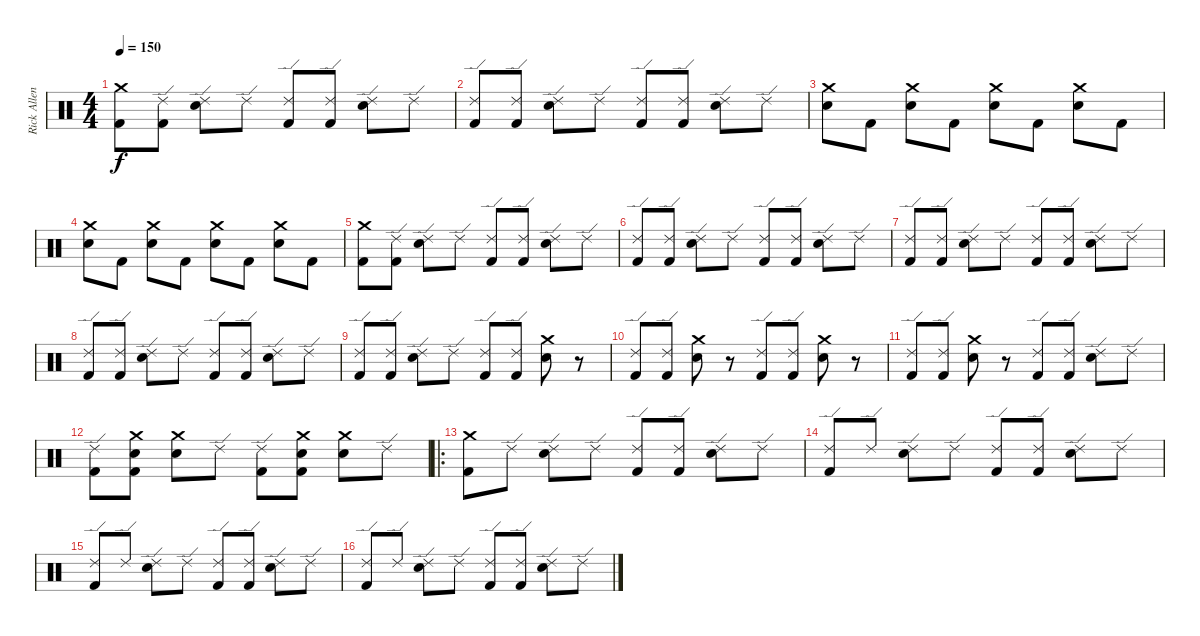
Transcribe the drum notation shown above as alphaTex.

\track ("Rick Allen" "Rick Allen") {instrument percussion}
\staff {score}
\articulation defaults
\ts (4 4)
\tempo 150
\clef neutral
\ks c
("Crash medium (hit)" "Kick (hit) 2").8{dy f} ("Ride (edge) 2" "Kick (hit) 2").8 ("Ride (edge) 2" "Snare (hit) 2").8 "Ride (edge) 2".8 ("Ride (edge) 2" "Kick (hit) 2").8 ("Ride (edge) 2" "Kick (hit) 2").8 ("Ride (edge) 2" "Snare (hit) 2").8 "Ride (edge) 2".8 |
("Ride (edge) 2" "Kick (hit) 2").8 ("Ride (edge) 2" "Kick (hit) 2").8 ("Ride (edge) 2" "Snare (hit) 2").8 "Ride (edge) 2".8 ("Ride (edge) 2" "Kick (hit) 2").8 ("Ride (edge) 2" "Kick (hit) 2").8 ("Ride (edge) 2" "Snare (hit) 2").8 "Ride (edge) 2".8 |
("Crash medium (hit)" "Snare (hit) 2").8 "Kick (hit) 2".8 ("Crash medium (hit)" "Snare (hit) 2").8 "Kick (hit) 2".8 ("Crash medium (hit)" "Snare (hit) 2").8 "Kick (hit) 2".8 ("Crash medium (hit)" "Snare (hit) 2").8 "Kick (hit) 2".8 |
("Crash medium (hit)" "Snare (hit) 2").8 "Kick (hit) 2".8 ("Crash medium (hit)" "Snare (hit) 2").8 "Kick (hit) 2".8 ("Crash medium (hit)" "Snare (hit) 2").8 "Kick (hit) 2".8 ("Crash medium (hit)" "Snare (hit) 2").8 "Kick (hit) 2".8 |
("Crash medium (hit)" "Kick (hit) 2").8 ("Ride (edge) 2" "Kick (hit) 2").8 ("Ride (edge) 2" "Snare (hit) 2").8 "Ride (edge) 2".8 ("Ride (edge) 2" "Kick (hit) 2").8 ("Ride (edge) 2" "Kick (hit) 2").8 ("Ride (edge) 2" "Snare (hit) 2").8 "Ride (edge) 2".8 |
("Ride (edge) 2" "Kick (hit) 2").8 ("Ride (edge) 2" "Kick (hit) 2").8 ("Ride (edge) 2" "Snare (hit) 2").8 "Ride (edge) 2".8 ("Ride (edge) 2" "Kick (hit) 2").8 ("Ride (edge) 2" "Kick (hit) 2").8 ("Ride (edge) 2" "Snare (hit) 2").8 "Ride (edge) 2".8 |
("Ride (edge) 2" "Kick (hit) 2").8 ("Ride (edge) 2" "Kick (hit) 2").8 ("Ride (edge) 2" "Snare (hit) 2").8 "Ride (edge) 2".8 ("Ride (edge) 2" "Kick (hit) 2").8 ("Ride (edge) 2" "Kick (hit) 2").8 ("Ride (edge) 2" "Snare (hit) 2").8 "Ride (edge) 2".8 |
("Ride (edge) 2" "Kick (hit) 2").8 ("Ride (edge) 2" "Kick (hit) 2").8 ("Ride (edge) 2" "Snare (hit) 2").8 "Ride (edge) 2".8 ("Ride (edge) 2" "Kick (hit) 2").8 ("Ride (edge) 2" "Kick (hit) 2").8 ("Ride (edge) 2" "Snare (hit) 2").8 "Ride (edge) 2".8 |
("Ride (edge) 2" "Kick (hit) 2").8 ("Ride (edge) 2" "Kick (hit) 2").8 ("Ride (edge) 2" "Snare (hit) 2").8 "Ride (edge) 2".8 ("Ride (edge) 2" "Kick (hit) 2").8 ("Ride (edge) 2" "Kick (hit) 2").8 ("Crash medium (hit)" "Snare (hit) 2").8 r.8 |
("Ride (edge) 2" "Kick (hit) 2").8 ("Ride (edge) 2" "Kick (hit) 2").8 ("Crash medium (hit)" "Snare (hit) 2").8 r.8 ("Ride (edge) 2" "Kick (hit) 2").8 ("Ride (edge) 2" "Kick (hit) 2").8 ("Crash medium (hit)" "Snare (hit) 2").8 r.8 |
("Ride (edge) 2" "Kick (hit) 2").8 ("Ride (edge) 2" "Kick (hit) 2").8 ("Crash medium (hit)" "Snare (hit) 2").8 r.8 ("Ride (edge) 2" "Kick (hit) 2").8 ("Ride (edge) 2" "Kick (hit) 2").8 ("Ride (edge) 2" "Snare (hit) 2").8 "Ride (edge) 2".8 |
("Ride (edge) 2" "Kick (hit) 2").8 ("Crash medium (hit)" "Snare (hit) 2" "Kick (hit) 2").8 ("Crash medium (hit)" "Snare (hit) 2").8 "Ride (edge) 2".8 ("Ride (edge) 2" "Kick (hit) 2").8 ("Crash medium (hit)" "Snare (hit) 2" "Kick (hit) 2").8 ("Crash medium (hit)" "Snare (hit) 2").8 "Ride (edge) 2".8 |
\ro
("Crash medium (hit)" "Kick (hit) 2").8 "Ride (edge) 2".8 ("Ride (edge) 2" "Snare (hit) 2").8 "Ride (edge) 2".8 ("Ride (edge) 2" "Kick (hit) 2").8 ("Ride (edge) 2" "Kick (hit) 2").8 ("Ride (edge) 2" "Snare (hit) 2").8 "Ride (edge) 2".8 |
("Ride (edge) 2" "Kick (hit) 2").8 "Ride (edge) 2".8 ("Ride (edge) 2" "Snare (hit) 2").8 "Ride (edge) 2".8 ("Ride (edge) 2" "Kick (hit) 2").8 ("Ride (edge) 2" "Kick (hit) 2").8 ("Ride (edge) 2" "Snare (hit) 2").8 "Ride (edge) 2".8 |
("Ride (edge) 2" "Kick (hit) 2").8 "Ride (edge) 2".8 ("Ride (edge) 2" "Snare (hit) 2").8 "Ride (edge) 2".8 ("Ride (edge) 2" "Kick (hit) 2").8 ("Ride (edge) 2" "Kick (hit) 2").8 ("Ride (edge) 2" "Snare (hit) 2").8 "Ride (edge) 2".8 |
("Ride (edge) 2" "Kick (hit) 2").8 "Ride (edge) 2".8 ("Ride (edge) 2" "Snare (hit) 2").8 "Ride (edge) 2".8 ("Ride (edge) 2" "Kick (hit) 2").8 ("Ride (edge) 2" "Kick (hit) 2").8 ("Ride (edge) 2" "Snare (hit) 2").8 "Ride (edge) 2".8
